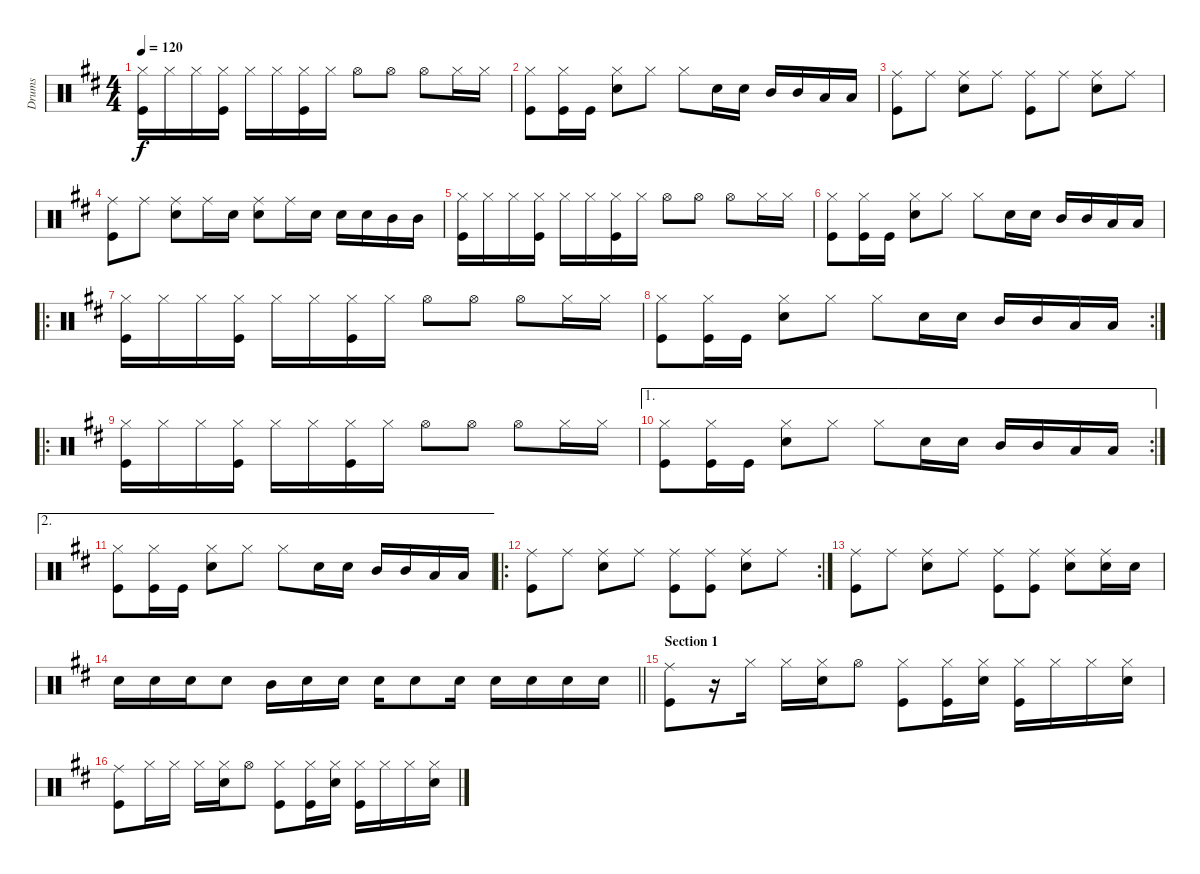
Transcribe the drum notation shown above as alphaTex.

\track ("Drums" "Drums") {instrument percussion}
\staff {score}
\articulation defaults
\ts (4 4)
\tempo 120
\clef neutral
\ks d
("Hi-Hat (closed)" "Kick (hit)").16{dy f} "Hi-Hat (closed)".16 "Hi-Hat (closed)".16 ("Hi-Hat (closed)" "Kick (hit)").16 "Hi-Hat (closed)".16 "Hi-Hat (closed)".16 ("Hi-Hat (closed)" "Kick (hit)").16 "Hi-Hat (closed)".16 "Hi-Hat (open)".8 "Hi-Hat (open)".8 "Hi-Hat (open)".8 "Hi-Hat (closed)".16 "Hi-Hat (closed)".16 |
("Hi-Hat (closed)" "Kick (hit)").8 ("Hi-Hat (closed)" "Kick (hit)").16 "Kick (hit)".16 ("Hi-Hat (closed)" "Snare (hit) 2").8 "Hi-Hat (closed)".8 "Hi-Hat (closed)".8 "Snare (hit) 2".16 "Snare (hit) 2".16 "Mid Tom (hit)".16 "Mid Tom (hit)".16 "Low Tom (hit)".16 "Low Tom (hit)".16 |
("Ride (middle)" "Kick (hit)").8 "Ride (middle)".8 ("Ride (middle)" "Snare (hit) 2").8 "Ride (middle)".8 ("Ride (middle)" "Kick (hit)").8 "Ride (middle)".8 ("Ride (middle)" "Snare (hit) 2").8 "Ride (middle)".8 |
("Ride (middle)" "Kick (hit)").8 "Ride (middle)".8 ("Ride (middle)" "Snare (hit) 2").8 "Ride (middle)".16 "Snare (hit) 2".16 ("Ride (middle)" "Snare (hit) 2").8 "Ride (middle)".16 "Snare (hit) 2".16 "Snare (hit) 2".16 "Snare (hit) 2".16 "Mid Tom (hit)".16 "Mid Tom (hit)".16 |
("Hi-Hat (closed)" "Kick (hit)").16 "Hi-Hat (closed)".16 "Hi-Hat (closed)".16 ("Hi-Hat (closed)" "Kick (hit)").16 "Hi-Hat (closed)".16 "Hi-Hat (closed)".16 ("Hi-Hat (closed)" "Kick (hit)").16 "Hi-Hat (closed)".16 "Hi-Hat (open)".8 "Hi-Hat (open)".8 "Hi-Hat (open)".8 "Hi-Hat (closed)".16 "Hi-Hat (closed)".16 |
("Hi-Hat (closed)" "Kick (hit)").8 ("Hi-Hat (closed)" "Kick (hit)").16 "Kick (hit)".16 ("Hi-Hat (closed)" "Snare (hit) 2").8 "Hi-Hat (closed)".8 "Hi-Hat (closed)".8 "Snare (hit) 2".16 "Snare (hit) 2".16 "Mid Tom (hit)".16 "Mid Tom (hit)".16 "Low Tom (hit)".16 "Low Tom (hit)".16 |
\ro
("Hi-Hat (closed)" "Kick (hit)").16 "Hi-Hat (closed)".16 "Hi-Hat (closed)".16 ("Hi-Hat (closed)" "Kick (hit)").16 "Hi-Hat (closed)".16 "Hi-Hat (closed)".16 ("Hi-Hat (closed)" "Kick (hit)").16 "Hi-Hat (closed)".16 "Hi-Hat (open)".8 "Hi-Hat (open)".8 "Hi-Hat (open)".8 "Hi-Hat (closed)".16 "Hi-Hat (closed)".16 |
\rc 2
("Hi-Hat (closed)" "Kick (hit)").8 ("Hi-Hat (closed)" "Kick (hit)").16 "Kick (hit)".16 ("Hi-Hat (closed)" "Snare (hit) 2").8 "Hi-Hat (closed)".8 "Hi-Hat (closed)".8 "Snare (hit) 2".16 "Snare (hit) 2".16 "Mid Tom (hit)".16 "Mid Tom (hit)".16 "Low Tom (hit)".16 "Low Tom (hit)".16 |
\ro
("Hi-Hat (closed)" "Kick (hit)").16 "Hi-Hat (closed)".16 "Hi-Hat (closed)".16 ("Hi-Hat (closed)" "Kick (hit)").16 "Hi-Hat (closed)".16 "Hi-Hat (closed)".16 ("Hi-Hat (closed)" "Kick (hit)").16 "Hi-Hat (closed)".16 "Hi-Hat (open)".8 "Hi-Hat (open)".8 "Hi-Hat (open)".8 "Hi-Hat (closed)".16 "Hi-Hat (closed)".16 |
\ae 1
\rc 2
("Hi-Hat (closed)" "Kick (hit)").8 ("Hi-Hat (closed)" "Kick (hit)").16 "Kick (hit)".16 ("Hi-Hat (closed)" "Snare (hit) 2").8 "Hi-Hat (closed)".8 "Hi-Hat (closed)".8 "Snare (hit) 2".16 "Snare (hit) 2".16 "Mid Tom (hit)".16 "Mid Tom (hit)".16 "Low Tom (hit)".16 "Low Tom (hit)".16 |
\ae 2
("Hi-Hat (closed)" "Kick (hit)").8 ("Hi-Hat (closed)" "Kick (hit)").16 "Kick (hit)".16 ("Hi-Hat (closed)" "Snare (hit) 2").8 "Hi-Hat (closed)".8 "Hi-Hat (closed)".8 "Snare (hit) 2".16 "Snare (hit) 2".16 "Mid Tom (hit)".16 "Mid Tom (hit)".16 "Low Tom (hit)".16 "Low Tom (hit)".16 |
\ro
\rc 2
("Ride (middle)" "Kick (hit)").8 "Ride (middle)".8 ("Ride (middle)" "Snare (hit) 2").8 "Ride (middle)".8 ("Ride (middle)" "Kick (hit)").8 ("Ride (middle)" "Kick (hit)").8 ("Ride (middle)" "Snare (hit) 2").8 "Ride (middle)".8 |
("Ride (middle)" "Kick (hit)").8 "Ride (middle)".8 ("Ride (middle)" "Snare (hit) 2").8 "Ride (middle)".8 ("Ride (middle)" "Kick (hit)").8 ("Ride (middle)" "Kick (hit)").8 ("Ride (middle)" "Snare (hit) 2").8 ("Ride (middle)" "Snare (hit) 2").16 "Snare (hit) 2".16 |
\barLineRight lightlight "Snare (hit) 2".16 "Snare (hit) 2".16 "Snare (hit) 2".16 "Snare (hit) 2".8 "Mid Tom (hit)".16 "Snare (hit) 2".16 "Snare (hit) 2".16 "Snare (hit) 2".16 "Snare (hit) 2".8 "Snare (hit) 2".16 "Snare (hit) 2".16 "Snare (hit) 2".16 "Snare (hit) 2".16 "Snare (hit) 2".16
|
\section ("" "Section 1")
("Ride (middle)" "Kick (hit)").8 r.16 "Hi-Hat (closed)".16 "Hi-Hat (closed)".16 ("Hi-Hat (closed)" "Snare (hit) 2").16 "Hi-Hat (open)".8 ("Hi-Hat (closed)" "Kick (hit)").8 ("Hi-Hat (closed)" "Kick (hit)").16 ("Hi-Hat (closed)" "Snare (hit) 2").16 ("Hi-Hat (closed)" "Kick (hit)").16 "Hi-Hat (closed)".16 "Hi-Hat (closed)".16 ("Hi-Hat (closed)" "Snare (hit) 2").16 |
("Ride (middle)" "Kick (hit)").8 "Hi-Hat (closed)".16 "Hi-Hat (closed)".16 "Hi-Hat (closed)".16 ("Hi-Hat (closed)" "Snare (hit) 2").16 "Hi-Hat (open)".8 ("Hi-Hat (closed)" "Kick (hit)").8 ("Hi-Hat (closed)" "Kick (hit)").16 ("Hi-Hat (closed)" "Snare (hit) 2").16 ("Hi-Hat (closed)" "Kick (hit)").16 "Hi-Hat (closed)".16 "Hi-Hat (closed)".16 ("Hi-Hat (closed)" "Snare (hit) 2").16
